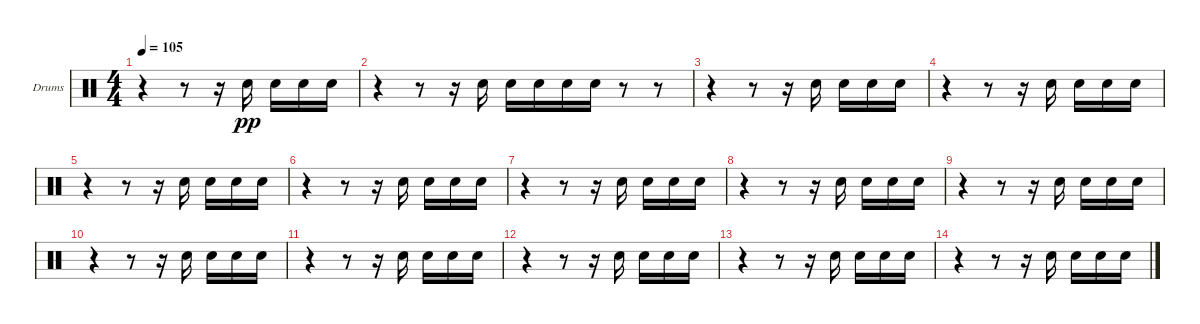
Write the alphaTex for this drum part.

\defaultSystemsLayout 4
\bracketExtendMode groupsimilarinstruments
\firstSystemTrackNameOrientation horizontal
\otherSystemsTrackNameOrientation horizontal
\track ("Drumkit" "Drums") {instrument percussion}
\staff {score}
\articulation defaults
\ts (4 4)
\tempo 105
\clef neutral
\scale
0.333333
\ks c
r.4{dy pp} r.8 r.16 "Snare (hit) 2".16 "Snare (hit) 2".16 "Snare (hit) 2".16 "Snare (hit) 2".16 |
\scale
0.333333 r.4 r.8 r.16 "Snare (hit) 2".16 "Snare (hit) 2".16 "Snare (hit) 2".16 "Snare (hit) 2".16 "Snare (hit) 2".16 r.8 r.8 |
\scale
0.333333 r.4 r.8 r.16 "Snare (hit) 2".16 "Snare (hit) 2".16 "Snare (hit) 2".16 "Snare (hit) 2".16 |
\scale
0.333333 r.4 r.8 r.16 "Snare (hit) 2".16 "Snare (hit) 2".16 "Snare (hit) 2".16 "Snare (hit) 2".16 |
\scale
0.333333 r.4 r.8 r.16 "Snare (hit) 2".16 "Snare (hit) 2".16 "Snare (hit) 2".16 "Snare (hit) 2".16 |
\scale
0.333333 r.4 r.8 r.16 "Snare (hit) 2".16 "Snare (hit) 2".16 "Snare (hit) 2".16 "Snare (hit) 2".16 |
\scale
0.333333 r.4 r.8 r.16 "Snare (hit) 2".16 "Snare (hit) 2".16 "Snare (hit) 2".16 "Snare (hit) 2".16 |
\scale
0.333333 r.4 r.8 r.16 "Snare (hit) 2".16 "Snare (hit) 2".16 "Snare (hit) 2".16 "Snare (hit) 2".16 |
\scale
0.333333 r.4 r.8 r.16 "Snare (hit) 2".16 "Snare (hit) 2".16 "Snare (hit) 2".16 "Snare (hit) 2".16 |
\scale
0.333333 r.4 r.8 r.16 "Snare (hit) 2".16 "Snare (hit) 2".16 "Snare (hit) 2".16 "Snare (hit) 2".16 |
\scale
0.333333 r.4 r.8 r.16 "Snare (hit) 2".16 "Snare (hit) 2".16 "Snare (hit) 2".16 "Snare (hit) 2".16 |
\scale
0.333333 r.4 r.8 r.16 "Snare (hit) 2".16 "Snare (hit) 2".16 "Snare (hit) 2".16 "Snare (hit) 2".16 |
\scale
0.333333 r.4 r.8 r.16 "Snare (hit) 2".16 "Snare (hit) 2".16 "Snare (hit) 2".16 "Snare (hit) 2".16 |
\scale
0.333333 r.4 r.8 r.16 "Snare (hit) 2".16 "Snare (hit) 2".16 "Snare (hit) 2".16 "Snare (hit) 2".16 |
\scale
0.333333 |
\scale
0.333333
